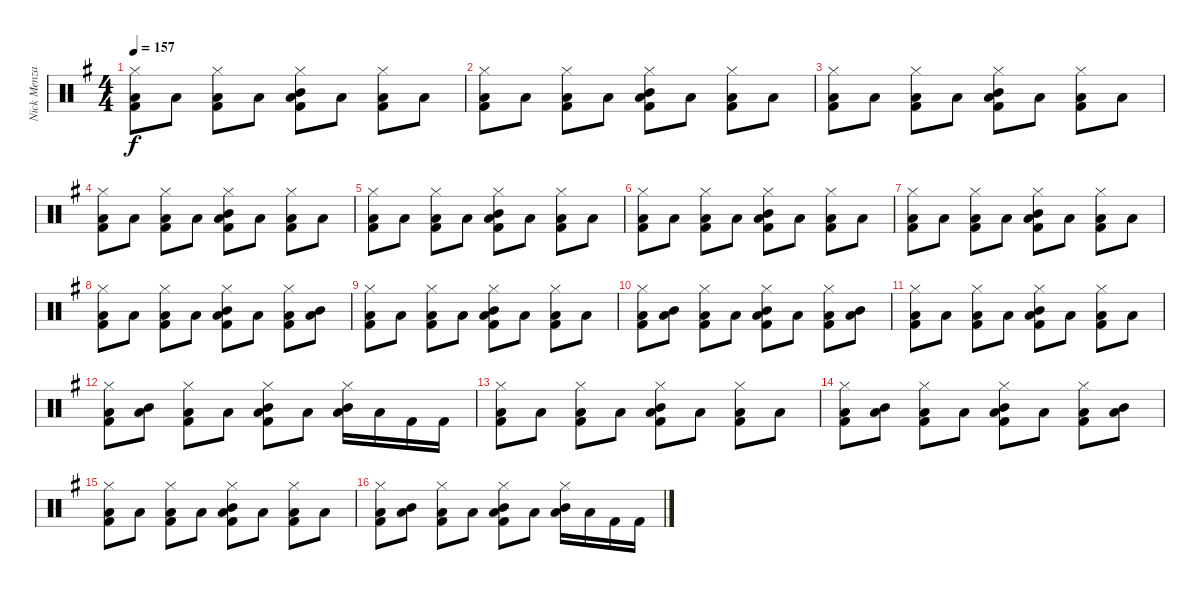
\track ("Nick Menza" "Nick Menza") {instrument percussion}
\staff {score}
\articulation defaults
\ts (4 4)
\tempo 157
\clef neutral
\ks g
("Hi-Hat (closed)" "Low Floor Tom (hit)" "Kick (hit) 2").8{dy f} "Low Floor Tom (hit)".8 ("Hi-Hat (closed)" "Low Floor Tom (hit)" "Kick (hit) 2").8 "Low Floor Tom (hit)".8 ("Hi-Hat (closed)" "Low Floor Tom (hit)" "Kick (hit) 2" "Mid Tom (hit)").8 "Low Floor Tom (hit)".8 ("Hi-Hat (closed)" "Low Floor Tom (hit)" "Kick (hit) 2").8 "Low Floor Tom (hit)".8 |
("Hi-Hat (closed)" "Low Floor Tom (hit)" "Kick (hit) 2").8 "Low Floor Tom (hit)".8 ("Hi-Hat (closed)" "Low Floor Tom (hit)" "Kick (hit) 2").8 "Low Floor Tom (hit)".8 ("Hi-Hat (closed)" "Low Floor Tom (hit)" "Kick (hit) 2" "Mid Tom (hit)").8 "Low Floor Tom (hit)".8 ("Hi-Hat (closed)" "Low Floor Tom (hit)" "Kick (hit) 2").8 "Low Floor Tom (hit)".8 |
("Hi-Hat (closed)" "Low Floor Tom (hit)" "Kick (hit) 2").8 "Low Floor Tom (hit)".8 ("Hi-Hat (closed)" "Low Floor Tom (hit)" "Kick (hit) 2").8 "Low Floor Tom (hit)".8 ("Hi-Hat (closed)" "Low Floor Tom (hit)" "Kick (hit) 2" "Mid Tom (hit)").8 "Low Floor Tom (hit)".8 ("Hi-Hat (closed)" "Low Floor Tom (hit)" "Kick (hit) 2").8 "Low Floor Tom (hit)".8 |
("Hi-Hat (closed)" "Low Floor Tom (hit)" "Kick (hit) 2").8 "Low Floor Tom (hit)".8 ("Hi-Hat (closed)" "Low Floor Tom (hit)" "Kick (hit) 2").8 "Low Floor Tom (hit)".8 ("Hi-Hat (closed)" "Low Floor Tom (hit)" "Kick (hit) 2" "Mid Tom (hit)").8 "Low Floor Tom (hit)".8 ("Hi-Hat (closed)" "Low Floor Tom (hit)" "Kick (hit) 2").8 "Low Floor Tom (hit)".8 |
("Hi-Hat (closed)" "Low Floor Tom (hit)" "Kick (hit) 2").8 "Low Floor Tom (hit)".8 ("Hi-Hat (closed)" "Low Floor Tom (hit)" "Kick (hit) 2").8 "Low Floor Tom (hit)".8 ("Hi-Hat (closed)" "Low Floor Tom (hit)" "Kick (hit) 2" "Mid Tom (hit)").8 "Low Floor Tom (hit)".8 ("Hi-Hat (closed)" "Low Floor Tom (hit)" "Kick (hit) 2").8 "Low Floor Tom (hit)".8 |
("Hi-Hat (closed)" "Low Floor Tom (hit)" "Kick (hit) 2").8 "Low Floor Tom (hit)".8 ("Hi-Hat (closed)" "Low Floor Tom (hit)" "Kick (hit) 2").8 "Low Floor Tom (hit)".8 ("Hi-Hat (closed)" "Low Floor Tom (hit)" "Kick (hit) 2" "Mid Tom (hit)").8 "Low Floor Tom (hit)".8 ("Hi-Hat (closed)" "Low Floor Tom (hit)" "Kick (hit) 2").8 "Low Floor Tom (hit)".8 |
("Hi-Hat (closed)" "Low Floor Tom (hit)" "Kick (hit) 2").8 "Low Floor Tom (hit)".8 ("Hi-Hat (closed)" "Low Floor Tom (hit)" "Kick (hit) 2").8 "Low Floor Tom (hit)".8 ("Hi-Hat (closed)" "Low Floor Tom (hit)" "Kick (hit) 2" "Mid Tom (hit)").8 "Low Floor Tom (hit)".8 ("Hi-Hat (closed)" "Low Floor Tom (hit)" "Kick (hit) 2").8 "Low Floor Tom (hit)".8 |
("Hi-Hat (closed)" "Low Floor Tom (hit)" "Kick (hit) 2").8 "Low Floor Tom (hit)".8 ("Hi-Hat (closed)" "Low Floor Tom (hit)" "Kick (hit) 2").8 "Low Floor Tom (hit)".8 ("Hi-Hat (closed)" "Low Floor Tom (hit)" "Kick (hit) 2" "Mid Tom (hit)").8 "Low Floor Tom (hit)".8 ("Hi-Hat (closed)" "Low Floor Tom (hit)" "Kick (hit) 2").8 ("Low Floor Tom (hit)" "Mid Tom (hit)").8 |
("Hi-Hat (closed)" "Low Floor Tom (hit)" "Kick (hit) 2").8 "Low Floor Tom (hit)".8 ("Hi-Hat (closed)" "Low Floor Tom (hit)" "Kick (hit) 2").8 "Low Floor Tom (hit)".8 ("Hi-Hat (closed)" "Low Floor Tom (hit)" "Kick (hit) 2" "Mid Tom (hit)").8 "Low Floor Tom (hit)".8 ("Hi-Hat (closed)" "Low Floor Tom (hit)" "Kick (hit) 2").8 "Low Floor Tom (hit)".8 |
("Hi-Hat (closed)" "Low Floor Tom (hit)" "Kick (hit) 2").8 ("Low Floor Tom (hit)" "Mid Tom (hit)").8 ("Hi-Hat (closed)" "Low Floor Tom (hit)" "Kick (hit) 2").8 "Low Floor Tom (hit)".8 ("Hi-Hat (closed)" "Low Floor Tom (hit)" "Kick (hit) 2" "Mid Tom (hit)").8 "Low Floor Tom (hit)".8 ("Hi-Hat (closed)" "Low Floor Tom (hit)" "Kick (hit) 2").8 ("Low Floor Tom (hit)" "Mid Tom (hit)").8 |
("Hi-Hat (closed)" "Low Floor Tom (hit)" "Kick (hit) 2").8 "Low Floor Tom (hit)".8 ("Hi-Hat (closed)" "Low Floor Tom (hit)" "Kick (hit) 2").8 "Low Floor Tom (hit)".8 ("Hi-Hat (closed)" "Low Floor Tom (hit)" "Kick (hit) 2" "Mid Tom (hit)").8 "Low Floor Tom (hit)".8 ("Hi-Hat (closed)" "Low Floor Tom (hit)" "Kick (hit) 2").8 "Low Floor Tom (hit)".8 |
("Hi-Hat (closed)" "Low Floor Tom (hit)" "Kick (hit) 2").8 ("Low Floor Tom (hit)" "Mid Tom (hit)").8 ("Hi-Hat (closed)" "Low Floor Tom (hit)" "Kick (hit) 2").8 "Low Floor Tom (hit)".8 ("Hi-Hat (closed)" "Low Floor Tom (hit)" "Kick (hit) 2" "Mid Tom (hit)").8 "Low Floor Tom (hit)".8 ("Hi-Hat (closed)" "Low Floor Tom (hit)" "Mid Tom (hit)").16 "Low Floor Tom (hit)".16 "Kick (hit) 2".16 "Kick (hit) 2".16 |
("Hi-Hat (closed)" "Low Floor Tom (hit)" "Kick (hit) 2").8 "Low Floor Tom (hit)".8 ("Hi-Hat (closed)" "Low Floor Tom (hit)" "Kick (hit) 2").8 "Low Floor Tom (hit)".8 ("Hi-Hat (closed)" "Low Floor Tom (hit)" "Kick (hit) 2" "Mid Tom (hit)").8 "Low Floor Tom (hit)".8 ("Hi-Hat (closed)" "Low Floor Tom (hit)" "Kick (hit) 2").8 "Low Floor Tom (hit)".8 |
("Hi-Hat (closed)" "Low Floor Tom (hit)" "Kick (hit) 2").8 ("Low Floor Tom (hit)" "Mid Tom (hit)").8 ("Hi-Hat (closed)" "Low Floor Tom (hit)" "Kick (hit) 2").8 "Low Floor Tom (hit)".8 ("Hi-Hat (closed)" "Low Floor Tom (hit)" "Kick (hit) 2" "Mid Tom (hit)").8 "Low Floor Tom (hit)".8 ("Hi-Hat (closed)" "Low Floor Tom (hit)" "Kick (hit) 2").8 ("Low Floor Tom (hit)" "Mid Tom (hit)").8 |
("Hi-Hat (closed)" "Low Floor Tom (hit)" "Kick (hit) 2").8 "Low Floor Tom (hit)".8 ("Hi-Hat (closed)" "Low Floor Tom (hit)" "Kick (hit) 2").8 "Low Floor Tom (hit)".8 ("Hi-Hat (closed)" "Low Floor Tom (hit)" "Kick (hit) 2" "Mid Tom (hit)").8 "Low Floor Tom (hit)".8 ("Hi-Hat (closed)" "Low Floor Tom (hit)" "Kick (hit) 2").8 "Low Floor Tom (hit)".8 |
("Hi-Hat (closed)" "Low Floor Tom (hit)" "Kick (hit) 2").8 ("Low Floor Tom (hit)" "Mid Tom (hit)").8 ("Hi-Hat (closed)" "Low Floor Tom (hit)" "Kick (hit) 2").8 "Low Floor Tom (hit)".8 ("Hi-Hat (closed)" "Low Floor Tom (hit)" "Kick (hit) 2" "Mid Tom (hit)").8 "Low Floor Tom (hit)".8 ("Hi-Hat (closed)" "Low Floor Tom (hit)" "Mid Tom (hit)").16 "Low Floor Tom (hit)".16 "Kick (hit) 2".16 "Kick (hit) 2".16
